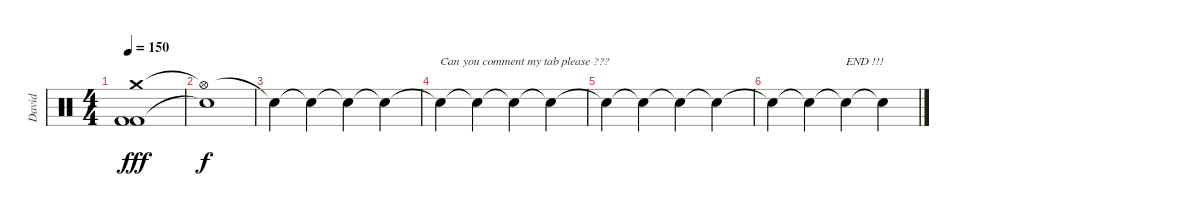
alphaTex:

\track ("David" "David") {instrument percussion}
\staff {score}
\articulation defaults
\ts (4 4)
\tempo 150
\clef neutral
\ks c
("Crash medium (hit)" "Kick (hit) 2" "Kick (hit) 2").1{dy fff} |
("Hi-Hat (open)"{t} "Snare (hit)"{t}).1{dy f} |
"Snare (hit)"{t}.4 "Snare (hit)"{t}.4 "Snare (hit)"{t}.4 "Snare (hit)"{t}.4 |
"Snare (hit)"{t}.4{txt "Can you comment my tab please ???"} "Snare (hit)"{t}.4 "Snare (hit)"{t}.4 "Snare (hit)"{t}.4 |
"Snare (hit)"{t}.4 "Snare (hit)"{t}.4 "Snare (hit)"{t}.4 "Snare (hit)"{t}.4 |
"Snare (hit)"{t}.4 "Snare (hit)"{t}.4 "Snare (hit)"{t}.4{txt "END !!!"} "Snare (hit)"{t}.4
